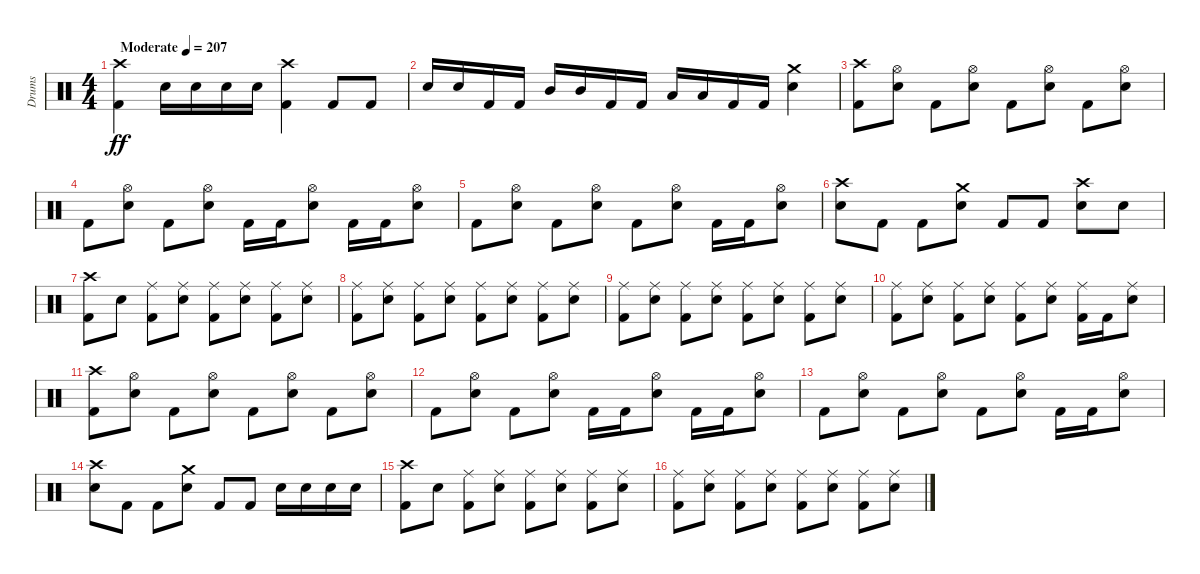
\track ("Drums" "Drums") {instrument percussion}
\staff {score}
\articulation defaults
\ts (4 4)
\tempo (207 "Moderate")
\clef neutral
\ks c
("Crash high (hit)" "Kick (hit) 2").4{dy ff} "Snare (hit) 2".16 "Snare (hit) 2".16 "Snare (hit) 2".16 "Snare (hit) 2".16 ("Crash high (hit)" "Kick (hit) 2").4 "Kick (hit) 2".8 "Kick (hit) 2".8 |
"Snare (hit) 2".16 "Snare (hit) 2".16 "Kick (hit) 2".16 "Kick (hit) 2".16 "Mid Tom (hit)".16 "Mid Tom (hit)".16 "Kick (hit) 2".16 "Kick (hit) 2".16 "Low Tom (hit)".16 "Low Tom (hit)".16 "Kick (hit) 2".16 "Kick (hit) 2".16 ("Crash medium (hit)" "Snare (hit) 2").4 |
("Crash high (hit)" "Kick (hit) 2").8 ("Hi-Hat (open)" "Snare (hit) 2").8 "Kick (hit) 2".8 ("Hi-Hat (open)" "Snare (hit) 2").8 "Kick (hit) 2".8 ("Hi-Hat (open)" "Snare (hit) 2").8 "Kick (hit) 2".8 ("Hi-Hat (open)" "Snare (hit) 2").8 |
"Kick (hit) 2".8 ("Hi-Hat (open)" "Snare (hit) 2").8 "Kick (hit) 2".8 ("Hi-Hat (open)" "Snare (hit) 2").8 "Kick (hit) 2".16 "Kick (hit) 2".16 ("Hi-Hat (open)" "Snare (hit) 2").8 "Kick (hit) 2".16 "Kick (hit) 2".16 ("Hi-Hat (open)" "Snare (hit) 2").8 |
"Kick (hit) 2".8 ("Hi-Hat (open)" "Snare (hit) 2").8 "Kick (hit) 2".8 ("Hi-Hat (open)" "Snare (hit) 2").8 "Kick (hit) 2".8 ("Hi-Hat (open)" "Snare (hit) 2").8 "Kick (hit) 2".16 "Kick (hit) 2".16 ("Hi-Hat (open)" "Snare (hit) 2").8 |
("Crash high (hit)" "Snare (hit) 2").8 "Kick (hit) 2".8 "Kick (hit) 2".8 ("Crash medium (hit)" "Snare (hit) 2").8 "Kick (hit) 2".8 "Kick (hit) 2".8 ("Crash high (hit)" "Snare (hit) 2").8 "Snare (hit) 2".8 |
("Crash high (hit)" "Kick (hit) 2").8 "Snare (hit) 2".8 ("Ride (middle)" "Kick (hit) 2").8 ("Ride (middle)" "Snare (hit) 2").8 ("Ride (middle)" "Kick (hit) 2").8 ("Ride (middle)" "Snare (hit) 2").8 ("Ride (middle)" "Kick (hit) 2").8 ("Ride (middle)" "Snare (hit) 2").8 |
("Ride (middle)" "Kick (hit) 2").8 ("Ride (middle)" "Snare (hit) 2").8 ("Ride (middle)" "Kick (hit) 2").8 ("Ride (middle)" "Snare (hit) 2").8 ("Ride (middle)" "Kick (hit) 2").8 ("Ride (middle)" "Snare (hit) 2").8 ("Ride (middle)" "Kick (hit) 2").8 ("Ride (middle)" "Snare (hit) 2").8 |
("Ride (middle)" "Kick (hit) 2").8 ("Ride (middle)" "Snare (hit) 2").8 ("Ride (middle)" "Kick (hit) 2").8 ("Ride (middle)" "Snare (hit) 2").8 ("Ride (middle)" "Kick (hit) 2").8 ("Ride (middle)" "Snare (hit) 2").8 ("Ride (middle)" "Kick (hit) 2").8 ("Ride (middle)" "Snare (hit) 2").8 |
("Ride (middle)" "Kick (hit) 2").8 ("Ride (middle)" "Snare (hit) 2").8 ("Ride (middle)" "Kick (hit) 2").8 ("Ride (middle)" "Snare (hit) 2").8 ("Ride (middle)" "Kick (hit) 2").8 ("Ride (middle)" "Snare (hit) 2").8 ("Ride (middle)" "Kick (hit) 2").16 "Kick (hit) 2".16 ("Ride (middle)" "Snare (hit) 2").8 |
("Crash high (hit)" "Kick (hit) 2").8 ("Hi-Hat (open)" "Snare (hit) 2").8 "Kick (hit) 2".8 ("Hi-Hat (open)" "Snare (hit) 2").8 "Kick (hit) 2".8 ("Hi-Hat (open)" "Snare (hit) 2").8 "Kick (hit) 2".8 ("Hi-Hat (open)" "Snare (hit) 2").8 |
"Kick (hit) 2".8 ("Hi-Hat (open)" "Snare (hit) 2").8 "Kick (hit) 2".8 ("Hi-Hat (open)" "Snare (hit) 2").8 "Kick (hit) 2".16 "Kick (hit) 2".16 ("Hi-Hat (open)" "Snare (hit) 2").8 "Kick (hit) 2".16 "Kick (hit) 2".16 ("Hi-Hat (open)" "Snare (hit) 2").8 |
"Kick (hit) 2".8 ("Hi-Hat (open)" "Snare (hit) 2").8 "Kick (hit) 2".8 ("Hi-Hat (open)" "Snare (hit) 2").8 "Kick (hit) 2".8 ("Hi-Hat (open)" "Snare (hit) 2").8 "Kick (hit) 2".16 "Kick (hit) 2".16 ("Hi-Hat (open)" "Snare (hit) 2").8 |
("Crash high (hit)" "Snare (hit) 2").8 "Kick (hit) 2".8 "Kick (hit) 2".8 ("Crash medium (hit)" "Snare (hit) 2").8 "Kick (hit) 2".8 "Kick (hit) 2".8 "Snare (hit) 2".16 "Snare (hit) 2".16 "Snare (hit) 2".16 "Snare (hit) 2".16 |
("Crash high (hit)" "Kick (hit) 2").8 "Snare (hit) 2".8 ("Ride (middle)" "Kick (hit) 2").8 ("Ride (middle)" "Snare (hit) 2").8 ("Ride (middle)" "Kick (hit) 2").8 ("Ride (middle)" "Snare (hit) 2").8 ("Ride (middle)" "Kick (hit) 2").8 ("Ride (middle)" "Snare (hit) 2").8 |
("Ride (middle)" "Kick (hit) 2").8 ("Ride (middle)" "Snare (hit) 2").8 ("Ride (middle)" "Kick (hit) 2").8 ("Ride (middle)" "Snare (hit) 2").8 ("Ride (middle)" "Kick (hit) 2").8 ("Ride (middle)" "Snare (hit) 2").8 ("Ride (middle)" "Kick (hit) 2").8 ("Ride (middle)" "Snare (hit) 2").8
